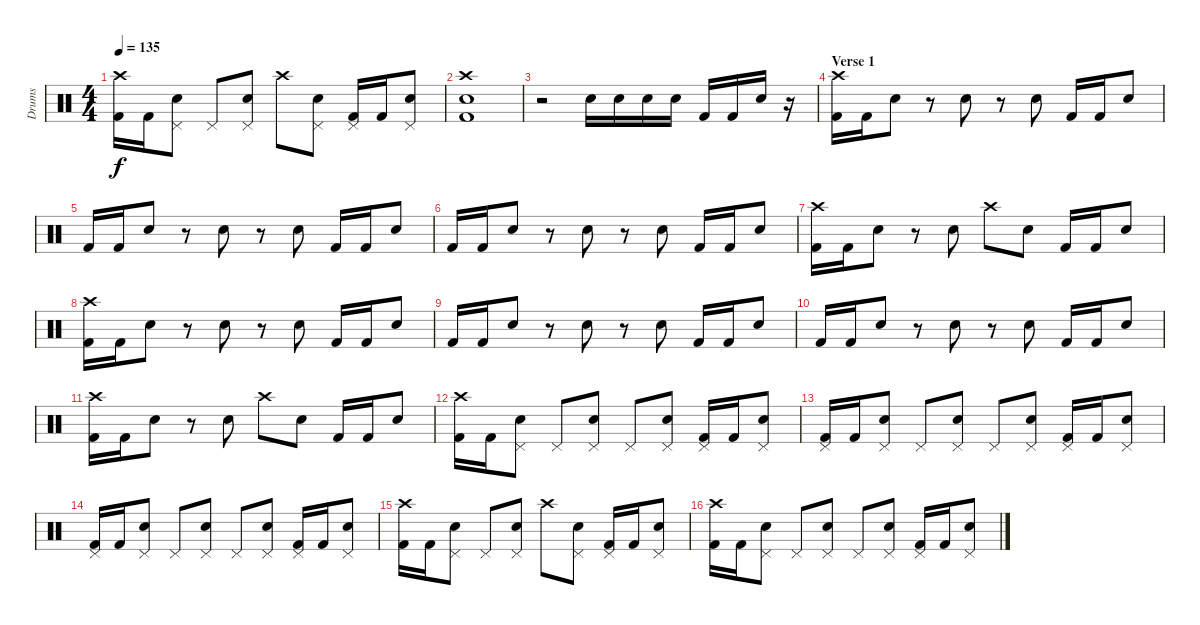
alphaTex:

\track ("Drums" "Drums") {instrument percussion}
\staff {score}
\articulation defaults
\ts (4 4)
\tempo 135
\clef neutral
\ks c
("Crash high (hit)" "Kick (hit) 2").16{dy f} "Kick (hit) 2".16 ("Pedal Hi-Hat (hit)" "Snare (hit) 2").8 "Pedal Hi-Hat (hit)".8 ("Pedal Hi-Hat (hit)" "Snare (hit) 2").8 "Crash high (hit)".8 ("Pedal Hi-Hat (hit)" "Snare (hit) 2").8 ("Pedal Hi-Hat (hit)" "Kick (hit) 2").16 "Kick (hit) 2".16 ("Pedal Hi-Hat (hit)" "Snare (hit) 2").8 |
("Crash high (hit)" "Snare (hit) 2" "Kick (hit) 2").1 |
r.2 "Snare (hit) 2".16 "Snare (hit) 2".16 "Snare (hit) 2".16 "Snare (hit) 2".16 "Kick (hit) 2".16 "Kick (hit) 2".16 "Snare (hit) 2".16 r.16 |
\section ("" "Verse 1")
("Crash high (hit)" "Kick (hit) 2").16 "Kick (hit) 2".16 "Snare (hit) 2".8 r.8 "Snare (hit) 2".8 r.8 "Snare (hit) 2".8 "Kick (hit) 2".16 "Kick (hit) 2".16 "Snare (hit) 2".8 |
"Kick (hit) 2".16 "Kick (hit) 2".16 "Snare (hit) 2".8 r.8 "Snare (hit) 2".8 r.8 "Snare (hit) 2".8 "Kick (hit) 2".16 "Kick (hit) 2".16 "Snare (hit) 2".8 |
"Kick (hit) 2".16 "Kick (hit) 2".16 "Snare (hit) 2".8 r.8 "Snare (hit) 2".8 r.8 "Snare (hit) 2".8 "Kick (hit) 2".16 "Kick (hit) 2".16 "Snare (hit) 2".8 |
("Crash high (hit)" "Kick (hit) 2").16 "Kick (hit) 2".16 "Snare (hit) 2".8 r.8 "Snare (hit) 2".8 "Crash high (hit)".8 "Snare (hit) 2".8 "Kick (hit) 2".16 "Kick (hit) 2".16 "Snare (hit) 2".8 |
("Crash high (hit)" "Kick (hit) 2").16 "Kick (hit) 2".16 "Snare (hit) 2".8 r.8 "Snare (hit) 2".8 r.8 "Snare (hit) 2".8 "Kick (hit) 2".16 "Kick (hit) 2".16 "Snare (hit) 2".8 |
"Kick (hit) 2".16 "Kick (hit) 2".16 "Snare (hit) 2".8 r.8 "Snare (hit) 2".8 r.8 "Snare (hit) 2".8 "Kick (hit) 2".16 "Kick (hit) 2".16 "Snare (hit) 2".8 |
"Kick (hit) 2".16 "Kick (hit) 2".16 "Snare (hit) 2".8 r.8 "Snare (hit) 2".8 r.8 "Snare (hit) 2".8 "Kick (hit) 2".16 "Kick (hit) 2".16 "Snare (hit) 2".8 |
("Crash high (hit)" "Kick (hit) 2").16 "Kick (hit) 2".16 "Snare (hit) 2".8 r.8 "Snare (hit) 2".8 "Crash high (hit)".8 "Snare (hit) 2".8 "Kick (hit) 2".16 "Kick (hit) 2".16 "Snare (hit) 2".8 |
("Crash high (hit)" "Kick (hit) 2").16 "Kick (hit) 2".16 ("Pedal Hi-Hat (hit)" "Snare (hit) 2").8 "Pedal Hi-Hat (hit)".8 ("Pedal Hi-Hat (hit)" "Snare (hit) 2").8 "Pedal Hi-Hat (hit)".8 ("Pedal Hi-Hat (hit)" "Snare (hit) 2").8 ("Pedal Hi-Hat (hit)" "Kick (hit) 2").16 "Kick (hit) 2".16 ("Pedal Hi-Hat (hit)" "Snare (hit) 2").8 |
("Pedal Hi-Hat (hit)" "Kick (hit) 2").16 "Kick (hit) 2".16 ("Pedal Hi-Hat (hit)" "Snare (hit) 2").8 "Pedal Hi-Hat (hit)".8 ("Pedal Hi-Hat (hit)" "Snare (hit) 2").8 "Pedal Hi-Hat (hit)".8 ("Pedal Hi-Hat (hit)" "Snare (hit) 2").8 ("Pedal Hi-Hat (hit)" "Kick (hit) 2").16 "Kick (hit) 2".16 ("Pedal Hi-Hat (hit)" "Snare (hit) 2").8 |
("Pedal Hi-Hat (hit)" "Kick (hit) 2").16 "Kick (hit) 2".16 ("Pedal Hi-Hat (hit)" "Snare (hit) 2").8 "Pedal Hi-Hat (hit)".8 ("Pedal Hi-Hat (hit)" "Snare (hit) 2").8 "Pedal Hi-Hat (hit)".8 ("Pedal Hi-Hat (hit)" "Snare (hit) 2").8 ("Pedal Hi-Hat (hit)" "Kick (hit) 2").16 "Kick (hit) 2".16 ("Pedal Hi-Hat (hit)" "Snare (hit) 2").8 |
("Crash high (hit)" "Kick (hit) 2").16 "Kick (hit) 2".16 ("Pedal Hi-Hat (hit)" "Snare (hit) 2").8 "Pedal Hi-Hat (hit)".8 ("Pedal Hi-Hat (hit)" "Snare (hit) 2").8 "Crash high (hit)".8 ("Pedal Hi-Hat (hit)" "Snare (hit) 2").8 ("Pedal Hi-Hat (hit)" "Kick (hit) 2").16 "Kick (hit) 2".16 ("Pedal Hi-Hat (hit)" "Snare (hit) 2").8 |
("Crash high (hit)" "Kick (hit) 2").16 "Kick (hit) 2".16 ("Pedal Hi-Hat (hit)" "Snare (hit) 2").8 "Pedal Hi-Hat (hit)".8 ("Pedal Hi-Hat (hit)" "Snare (hit) 2").8 "Pedal Hi-Hat (hit)".8 ("Pedal Hi-Hat (hit)" "Snare (hit) 2").8 ("Pedal Hi-Hat (hit)" "Kick (hit) 2").16 "Kick (hit) 2".16 ("Pedal Hi-Hat (hit)" "Snare (hit) 2").8
